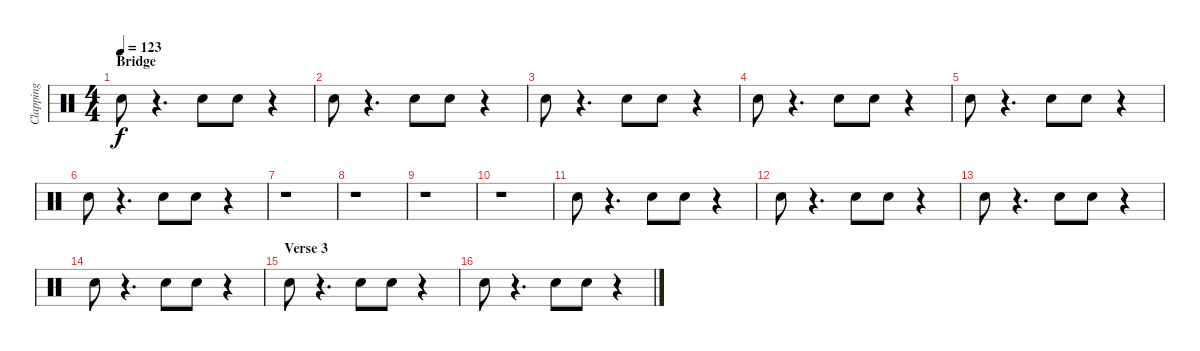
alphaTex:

\track ("Clapping" "Clapping") {instrument percussion}
\staff {score}
\articulation defaults
\ts (4 4)
\section ("" "Bridge")
\tempo 123
\clef neutral
\ks c "Hand Clap (hit)".8{dy f}
r.4{d} "Hand Clap (hit)".8 "Hand Clap (hit)".8 r.4 |
"Hand Clap (hit)".8 r.4{d} "Hand Clap (hit)".8 "Hand Clap (hit)".8 r.4 |
"Hand Clap (hit)".8 r.4{d} "Hand Clap (hit)".8 "Hand Clap (hit)".8 r.4 |
"Hand Clap (hit)".8 r.4{d} "Hand Clap (hit)".8 "Hand Clap (hit)".8 r.4 |
"Hand Clap (hit)".8 r.4{d} "Hand Clap (hit)".8 "Hand Clap (hit)".8 r.4 |
"Hand Clap (hit)".8 r.4{d} "Hand Clap (hit)".8 "Hand Clap (hit)".8 r.4 |
r.1 |
r.1 |
r.1 |
r.1 |
"Hand Clap (hit)".8 r.4{d} "Hand Clap (hit)".8 "Hand Clap (hit)".8 r.4 |
"Hand Clap (hit)".8 r.4{d} "Hand Clap (hit)".8 "Hand Clap (hit)".8 r.4 |
"Hand Clap (hit)".8 r.4{d} "Hand Clap (hit)".8 "Hand Clap (hit)".8 r.4 |
"Hand Clap (hit)".8 r.4{d} "Hand Clap (hit)".8 "Hand Clap (hit)".8 r.4 |
\section ("" "Verse 3")
"Hand Clap (hit)".8 r.4{d} "Hand Clap (hit)".8 "Hand Clap (hit)".8 r.4 |
"Hand Clap (hit)".8 r.4{d} "Hand Clap (hit)".8 "Hand Clap (hit)".8 r.4
